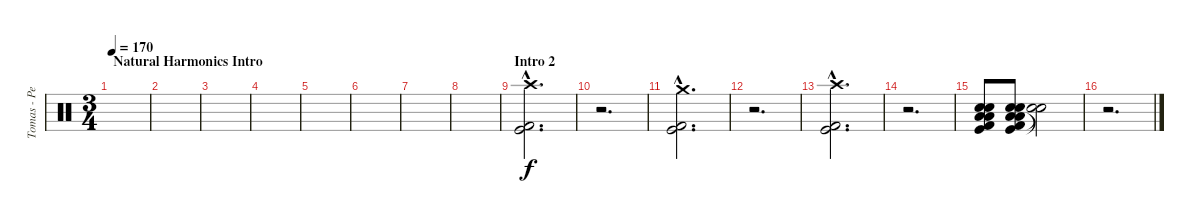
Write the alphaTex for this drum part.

\track ("Tomas - Percussions" "Tomas - Pe") {instrument percussion}
\staff {score}
\articulation defaults
\ts (3 4)
\section ("" "Natural Harmonics Intro")
\tempo 170
\clef neutral
\ks c
|
|
|
|
|
|
|
|
\section ("" "Intro 2")
("Crash high (hit)"{hac} "Kick (hit) 2"{hac} "Kick (hit)"{hac}).2{d} |
r.2{d} |
("Crash medium (hit)"{hac} "Kick (hit) 2"{hac} "Kick (hit)"{hac}).2{d} |
r.2{d} |
("Crash high (hit)"{hac} "Kick (hit) 2"{hac} "Kick (hit)"{hac}).2{d} |
r.2{d} |
("Kick (hit)" "Kick (hit) 2" "Low Floor Tom (hit)" "Electric Snare (hit)" "Low Floor Tom (hit)" "Electric Snare (hit)").8 ("Kick (hit)" "Kick (hit) 2" "Low Floor Tom (hit)" "Electric Snare (hit)" "Low Floor Tom (hit)" "Electric Snare (hit)").8 ("Snare (hit)"{t} "Snare (hit)"{t}).2{dy f} |
r.2{d}
